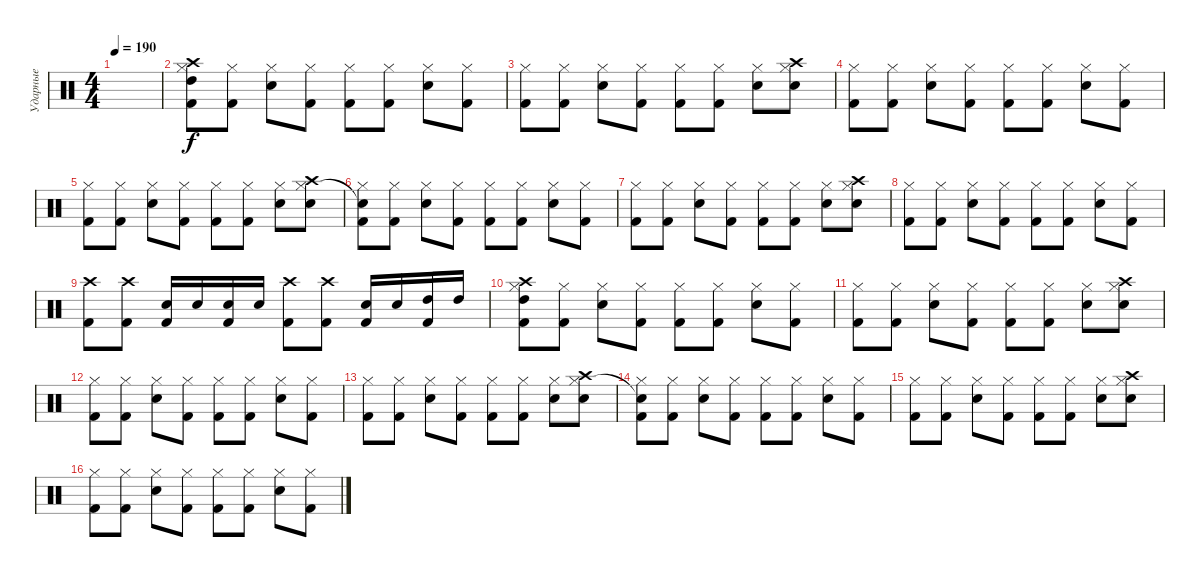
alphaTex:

\track ("Ударные" "Ударные") {instrument percussion}
\staff {score}
\articulation defaults
\ts (4 4)
\tempo 190
\clef neutral
\ks c
|
("High Tom (hit)" "Hi-Hat (closed)" "Crash high (hit)" "Kick (hit) 2").8 ("Hi-Hat (closed)" "Kick (hit) 2").8 ("Hi-Hat (closed)" "Electric Snare (hit)").8 ("Hi-Hat (closed)" "Kick (hit) 2").8 ("Hi-Hat (closed)" "Kick (hit) 2").8 ("Hi-Hat (closed)" "Kick (hit) 2").8 ("Hi-Hat (closed)" "Electric Snare (hit)").8 ("Hi-Hat (closed)" "Kick (hit) 2").8 |
("Hi-Hat (closed)" "Kick (hit) 2").8 ("Hi-Hat (closed)" "Kick (hit) 2").8 ("Hi-Hat (closed)" "Electric Snare (hit)").8 ("Hi-Hat (closed)" "Kick (hit) 2").8 ("Hi-Hat (closed)" "Kick (hit) 2").8 ("Hi-Hat (closed)" "Kick (hit) 2").8 ("Hi-Hat (closed)" "Electric Snare (hit)").8 ("Hi-Hat (closed)" "Crash high (hit)" "Electric Snare (hit)").8 |
("Hi-Hat (closed)" "Kick (hit) 2").8 ("Hi-Hat (closed)" "Kick (hit) 2").8 ("Hi-Hat (closed)" "Electric Snare (hit)").8 ("Hi-Hat (closed)" "Kick (hit) 2").8 ("Hi-Hat (closed)" "Kick (hit) 2").8 ("Hi-Hat (closed)" "Kick (hit) 2").8 ("Hi-Hat (closed)" "Electric Snare (hit)").8 ("Hi-Hat (closed)" "Kick (hit) 2").8 |
("Hi-Hat (closed)" "Kick (hit) 2").8 ("Hi-Hat (closed)" "Kick (hit) 2").8 ("Hi-Hat (closed)" "Electric Snare (hit)").8 ("Hi-Hat (closed)" "Kick (hit) 2").8 ("Hi-Hat (closed)" "Kick (hit) 2").8 ("Hi-Hat (closed)" "Kick (hit) 2").8 ("Hi-Hat (closed)" "Electric Snare (hit)").8 ("Hi-Hat (closed)" "Crash high (hit)" "Electric Snare (hit)").8 |
("Snare (hit)"{t} "Hi-Hat (closed)" "Kick (hit) 2").8 ("Hi-Hat (closed)" "Kick (hit) 2").8 ("Hi-Hat (closed)" "Electric Snare (hit)").8 ("Hi-Hat (closed)" "Kick (hit) 2").8 ("Hi-Hat (closed)" "Kick (hit) 2").8 ("Hi-Hat (closed)" "Kick (hit) 2").8 ("Hi-Hat (closed)" "Electric Snare (hit)").8 ("Hi-Hat (closed)" "Kick (hit) 2").8 |
("Hi-Hat (closed)" "Kick (hit) 2").8 ("Hi-Hat (closed)" "Kick (hit) 2").8 ("Hi-Hat (closed)" "Electric Snare (hit)").8 ("Hi-Hat (closed)" "Kick (hit) 2").8 ("Hi-Hat (closed)" "Kick (hit) 2").8 ("Hi-Hat (closed)" "Kick (hit) 2").8 ("Hi-Hat (closed)" "Electric Snare (hit)").8 ("Hi-Hat (closed)" "Crash high (hit)" "Electric Snare (hit)").8 |
("Hi-Hat (closed)" "Kick (hit) 2").8 ("Hi-Hat (closed)" "Kick (hit) 2").8 ("Hi-Hat (closed)" "Electric Snare (hit)").8 ("Hi-Hat (closed)" "Kick (hit) 2").8 ("Hi-Hat (closed)" "Kick (hit) 2").8 ("Hi-Hat (closed)" "Kick (hit) 2").8 ("Hi-Hat (closed)" "Electric Snare (hit)").8 ("Hi-Hat (closed)" "Kick (hit) 2").8 |
("Crash high (hit)" "Kick (hit) 2").8 ("Crash high (hit)" "Kick (hit) 2").8 ("Electric Snare (hit)" "Kick (hit) 2").16 "Electric Snare (hit)".16 ("Electric Snare (hit)" "Kick (hit) 2").16 "Electric Snare (hit)".16 ("Crash high (hit)" "Kick (hit) 2").8 ("Crash high (hit)" "Kick (hit) 2").8 ("Electric Snare (hit)" "Kick (hit) 2").16 "Electric Snare (hit)".16 ("High Tom (hit)" "Kick (hit) 2").16 "High Tom (hit)".16 |
("High Tom (hit)" "Hi-Hat (closed)" "Crash high (hit)" "Kick (hit) 2").8 ("Hi-Hat (closed)" "Kick (hit) 2").8 ("Hi-Hat (closed)" "Electric Snare (hit)").8 ("Hi-Hat (closed)" "Kick (hit) 2").8 ("Hi-Hat (closed)" "Kick (hit) 2").8 ("Hi-Hat (closed)" "Kick (hit) 2").8 ("Hi-Hat (closed)" "Electric Snare (hit)").8 ("Hi-Hat (closed)" "Kick (hit) 2").8 |
("Hi-Hat (closed)" "Kick (hit) 2").8 ("Hi-Hat (closed)" "Kick (hit) 2").8 ("Hi-Hat (closed)" "Electric Snare (hit)").8 ("Hi-Hat (closed)" "Kick (hit) 2").8 ("Hi-Hat (closed)" "Kick (hit) 2").8 ("Hi-Hat (closed)" "Kick (hit) 2").8 ("Hi-Hat (closed)" "Electric Snare (hit)").8 ("Hi-Hat (closed)" "Crash high (hit)" "Electric Snare (hit)").8 |
("Hi-Hat (closed)" "Kick (hit) 2").8 ("Hi-Hat (closed)" "Kick (hit) 2").8 ("Hi-Hat (closed)" "Electric Snare (hit)").8 ("Hi-Hat (closed)" "Kick (hit) 2").8 ("Hi-Hat (closed)" "Kick (hit) 2").8 ("Hi-Hat (closed)" "Kick (hit) 2").8 ("Hi-Hat (closed)" "Electric Snare (hit)").8 ("Hi-Hat (closed)" "Kick (hit) 2").8 |
("Hi-Hat (closed)" "Kick (hit) 2").8 ("Hi-Hat (closed)" "Kick (hit) 2").8 ("Hi-Hat (closed)" "Electric Snare (hit)").8 ("Hi-Hat (closed)" "Kick (hit) 2").8 ("Hi-Hat (closed)" "Kick (hit) 2").8 ("Hi-Hat (closed)" "Kick (hit) 2").8 ("Hi-Hat (closed)" "Electric Snare (hit)").8 ("Hi-Hat (closed)" "Crash high (hit)" "Electric Snare (hit)").8 |
("Snare (hit)"{t} "Hi-Hat (closed)" "Kick (hit) 2").8 ("Hi-Hat (closed)" "Kick (hit) 2").8 ("Hi-Hat (closed)" "Electric Snare (hit)").8 ("Hi-Hat (closed)" "Kick (hit) 2").8 ("Hi-Hat (closed)" "Kick (hit) 2").8 ("Hi-Hat (closed)" "Kick (hit) 2").8 ("Hi-Hat (closed)" "Electric Snare (hit)").8 ("Hi-Hat (closed)" "Kick (hit) 2").8 |
("Hi-Hat (closed)" "Kick (hit) 2").8 ("Hi-Hat (closed)" "Kick (hit) 2").8 ("Hi-Hat (closed)" "Electric Snare (hit)").8 ("Hi-Hat (closed)" "Kick (hit) 2").8 ("Hi-Hat (closed)" "Kick (hit) 2").8 ("Hi-Hat (closed)" "Kick (hit) 2").8 ("Hi-Hat (closed)" "Electric Snare (hit)").8 ("Hi-Hat (closed)" "Crash high (hit)" "Electric Snare (hit)").8 |
("Hi-Hat (closed)" "Kick (hit) 2").8 ("Hi-Hat (closed)" "Kick (hit) 2").8 ("Hi-Hat (closed)" "Electric Snare (hit)").8 ("Hi-Hat (closed)" "Kick (hit) 2").8 ("Hi-Hat (closed)" "Kick (hit) 2").8 ("Hi-Hat (closed)" "Kick (hit) 2").8 ("Hi-Hat (closed)" "Electric Snare (hit)").8 ("Hi-Hat (closed)" "Kick (hit) 2").8
